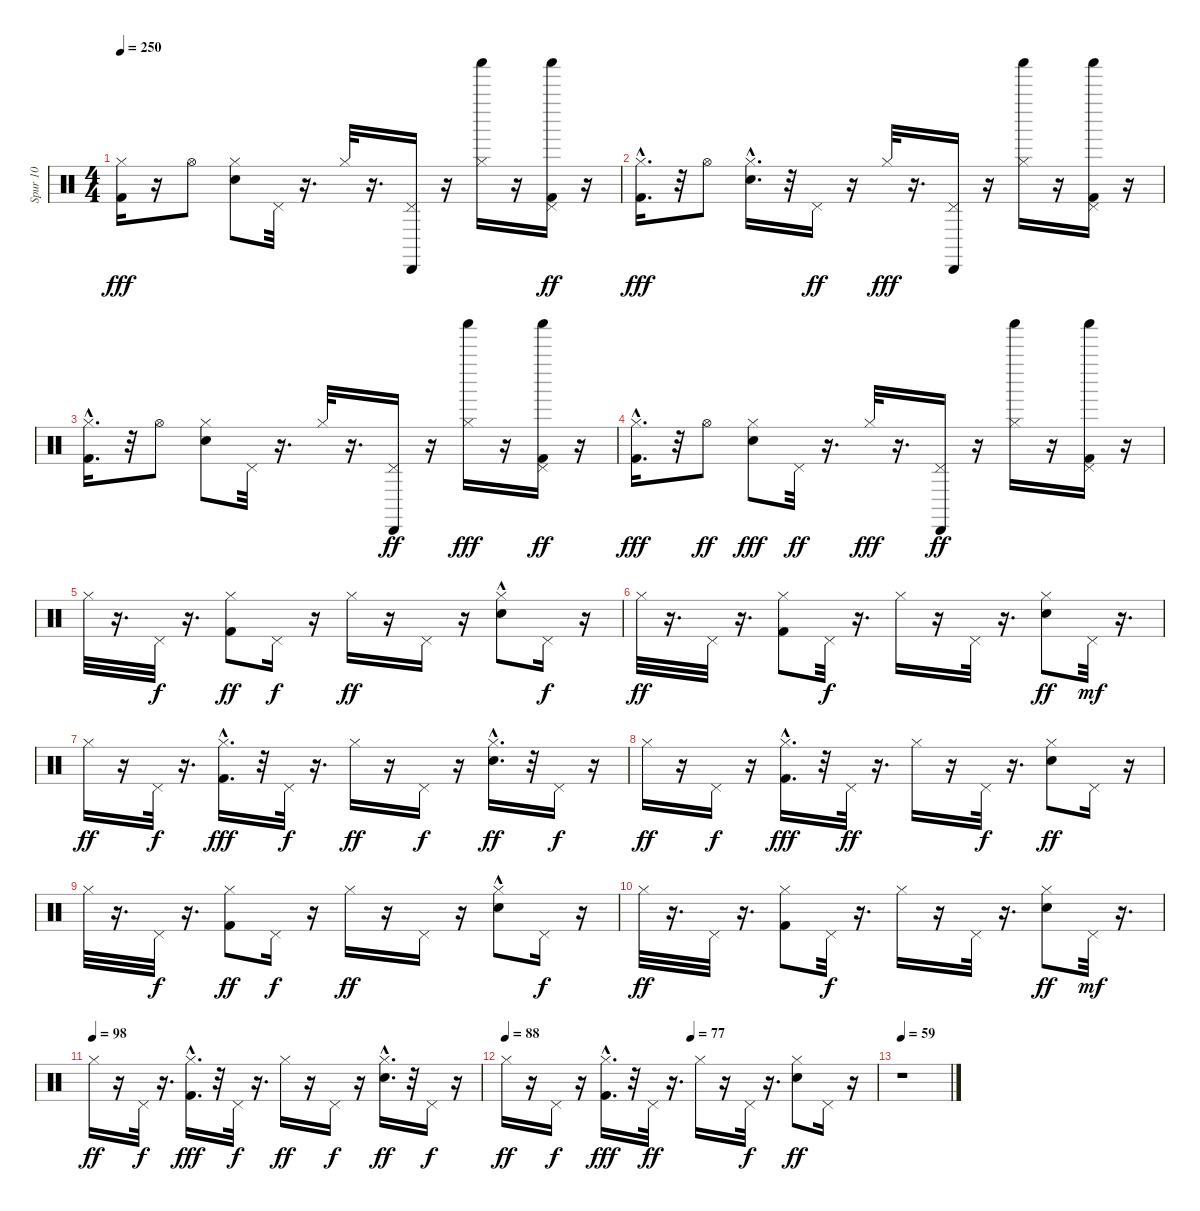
\track ("Spur 10" "Spur 10") {instrument percussion}
\staff {score}
\articulation defaults
\ts (4 4)
\tempo 250
\clef neutral
\ks c
("Kick (hit) 2" "Hi-Hat (closed)").16{dy fff} r.16 "Hi-Hat (open)".8 ("Snare (hit) 2" "Hi-Hat (closed)").8 "Pedal Hi-Hat (hit)".32 r.16{d} "Hi-Hat (closed)".32 r.16{d} ("Pedal Hi-Hat (hit)" "Cabasa (hit)").16 r.16 ("Hi-Hat (closed)" "Shaker (hit)").16 r.16 ("Kick (hit) 2" "Pedal Hi-Hat (hit)" "Shaker (hit)").16{dy ff} r.16 |
("Kick (hit) 2"{hac} "Hi-Hat (closed)").16{d dy fff} r.32 "Hi-Hat (open)".8 ("Snare (hit) 2"{hac} "Hi-Hat (closed)").16{d} r.32 "Pedal Hi-Hat (hit)".16{dy ff} r.16 "Hi-Hat (closed)".32{dy fff} r.16{d} ("Pedal Hi-Hat (hit)" "Cabasa (hit)").16 r.16 ("Hi-Hat (closed)" "Shaker (hit)").16 r.16 ("Kick (hit) 2" "Pedal Hi-Hat (hit)" "Shaker (hit)").16 r.16 |
("Kick (hit) 2"{hac} "Hi-Hat (closed)").16{d} r.32 "Hi-Hat (open)".8 ("Snare (hit) 2" "Hi-Hat (closed)").8 "Pedal Hi-Hat (hit)".32 r.16{d} "Hi-Hat (closed)".32 r.16{d} ("Pedal Hi-Hat (hit)" "Cabasa (hit)").16{dy ff} r.16 ("Hi-Hat (closed)" "Shaker (hit)").16{dy fff} r.16 ("Kick (hit) 2" "Pedal Hi-Hat (hit)" "Shaker (hit)").16{dy ff} r.16 |
("Kick (hit) 2"{hac} "Hi-Hat (closed)").16{d dy fff} r.32 "Hi-Hat (open)".8{dy ff} ("Snare (hit) 2" "Hi-Hat (closed)").8{dy fff} "Pedal Hi-Hat (hit)".32{dy ff} r.16{d} "Hi-Hat (closed)".32{dy fff} r.16{d} ("Pedal Hi-Hat (hit)" "Cabasa (hit)").16{dy ff} r.16 ("Hi-Hat (closed)" "Shaker (hit)").16 r.16 ("Kick (hit) 2" "Pedal Hi-Hat (hit)" "Shaker (hit)").16 r.16 |
"Hi-Hat (closed)".32 r.16{d} "Pedal Hi-Hat (hit)".32{dy f} r.16{d} ("Kick (hit) 2" "Hi-Hat (closed)").8{dy ff} "Pedal Hi-Hat (hit)".16{dy f} r.16 "Hi-Hat (closed)".16{dy ff} r.16 "Pedal Hi-Hat (hit)".16 r.16 ("Snare (hit) 2"{hac} "Hi-Hat (closed)").8 "Pedal Hi-Hat (hit)".16{dy f} r.16 |
"Hi-Hat (closed)".32{dy ff} r.16{d} "Pedal Hi-Hat (hit)".32 r.16{d} ("Kick (hit) 2" "Hi-Hat (closed)").8 "Pedal Hi-Hat (hit)".32{dy f} r.16{d} "Hi-Hat (closed)".16 r.16 "Pedal Hi-Hat (hit)".32 r.16{d} ("Snare (hit) 2" "Hi-Hat (closed)").8{dy ff} "Pedal Hi-Hat (hit)".32{dy mf} r.16{d} |
"Hi-Hat (closed)".16{dy ff} r.16 "Pedal Hi-Hat (hit)".32{dy f} r.16{d} ("Kick (hit) 2"{hac} "Hi-Hat (closed)").16{d dy fff} r.32 "Pedal Hi-Hat (hit)".32{dy f} r.16{d} "Hi-Hat (closed)".16{dy ff} r.16 "Pedal Hi-Hat (hit)".16{dy f} r.16 ("Snare (hit) 2"{hac} "Hi-Hat (closed)").16{d dy ff} r.32 "Pedal Hi-Hat (hit)".16{dy f} r.16 |
"Hi-Hat (closed)".16{dy ff} r.16 "Pedal Hi-Hat (hit)".16{dy f} r.16 ("Kick (hit) 2"{hac} "Hi-Hat (closed)").16{d dy fff} r.32 "Pedal Hi-Hat (hit)".32{dy ff} r.16{d} "Hi-Hat (closed)".16 r.16 "Pedal Hi-Hat (hit)".32{dy f} r.16{d} ("Snare (hit) 2" "Hi-Hat (closed)").8{dy ff} "Pedal Hi-Hat (hit)".16 r.16 |
"Hi-Hat (closed)".32 r.16{d} "Pedal Hi-Hat (hit)".32{dy f} r.16{d} ("Kick (hit) 2" "Hi-Hat (closed)").8{dy ff} "Pedal Hi-Hat (hit)".16{dy f} r.16 "Hi-Hat (closed)".16{dy ff} r.16 "Pedal Hi-Hat (hit)".16 r.16 ("Snare (hit) 2"{hac} "Hi-Hat (closed)").8 "Pedal Hi-Hat (hit)".16{dy f} r.16 |
"Hi-Hat (closed)".32{dy ff} r.16{d} "Pedal Hi-Hat (hit)".32 r.16{d} ("Kick (hit) 2" "Hi-Hat (closed)").8 "Pedal Hi-Hat (hit)".32{dy f} r.16{d} "Hi-Hat (closed)".16 r.16 "Pedal Hi-Hat (hit)".32 r.16{d} ("Snare (hit) 2" "Hi-Hat (closed)").8{dy ff} "Pedal Hi-Hat (hit)".32{dy mf} r.16{d} |
\tempo (98)
"Hi-Hat (closed)".16{dy ff} r.16 "Pedal Hi-Hat (hit)".32{dy f} r.16{d} ("Kick (hit) 2"{hac} "Hi-Hat (closed)").16{d dy fff} r.32 "Pedal Hi-Hat (hit)".32{dy f} r.16{d} "Hi-Hat (closed)".16{dy ff} r.16 "Pedal Hi-Hat (hit)".16{dy f} r.16 ("Snare (hit) 2"{hac} "Hi-Hat (closed)").16{d dy ff} r.32 "Pedal Hi-Hat (hit)".16{dy f} r.16 |
\tempo 88
\tempo (77 0.5)
"Hi-Hat (closed)".16{dy ff} r.16 "Pedal Hi-Hat (hit)".16{dy f} r.16 ("Kick (hit) 2"{hac} "Hi-Hat (closed)").16{d dy fff} r.32 "Pedal Hi-Hat (hit)".32{dy ff} r.16{d} "Hi-Hat (closed)".16 r.16 "Pedal Hi-Hat (hit)".32{dy f} r.16{d} ("Snare (hit) 2" "Hi-Hat (closed)").8{dy ff} "Pedal Hi-Hat (hit)".16 r.16 |
\tempo 59
r.1
